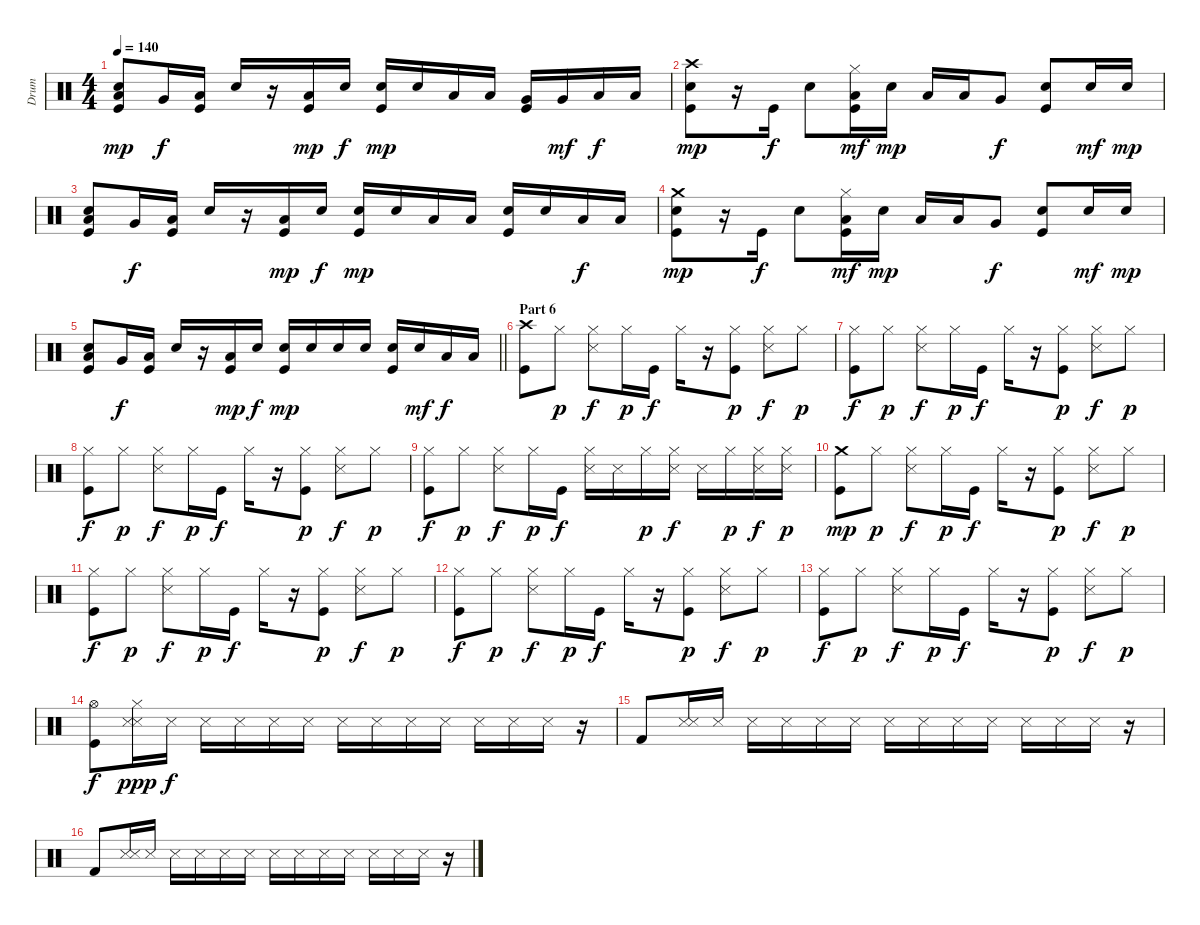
\track ("Drum" "Drum") {instrument percussion}
\staff {score}
\articulation defaults
\ts (4 4)
\tempo 140
\clef neutral
\ks c
("Low Tom (hit)" "Electric Snare (hit)" "Kick (hit)").8{dy mp} "Very Low Tom (hit)".16{dy f} ("Low Floor Tom (hit)" "Kick (hit)").16 "Electric Snare (hit)".16 r.16 ("Low Tom (hit)" "Kick (hit)").16{dy mp} "Electric Snare (hit)".16{dy f} ("Electric Snare (hit)" "Kick (hit)").16{dy mp} "Electric Snare (hit)".16 "Low Tom (hit)".16 "Low Tom (hit)".16 ("Very Low Tom (hit)" "Kick (hit)").16 "Very Low Tom (hit)".16{dy mf} "Low Floor Tom (hit)".16{dy f} "Low Floor Tom (hit)".16 |
("Crash high (hit)" "Electric Snare (hit)" "Kick (hit)").8{dy mp} r.16 "Kick (hit)".16{dy f} "Electric Snare (hit)".8 ("Low Tom (hit)" "Hi-Hat (closed)" "Kick (hit)").16{dy mf} "Electric Snare (hit)".16{dy mp} "Low Tom (hit)".16 "Low Floor Tom (hit)".16 "Very Low Tom (hit)".8{dy f} ("Electric Snare (hit)" "Kick (hit)").8 "Electric Snare (hit)".16{dy mf} "Electric Snare (hit)".16{dy mp} |
("Low Tom (hit)" "Electric Snare (hit)" "Kick (hit)").8 "Very Low Tom (hit)".16{dy f} ("Low Floor Tom (hit)" "Kick (hit)").16 "Electric Snare (hit)".16 r.16 ("Low Tom (hit)" "Kick (hit)").16{dy mp} "Electric Snare (hit)".16{dy f} ("Electric Snare (hit)" "Kick (hit)").16{dy mp} "Electric Snare (hit)".16 "Low Tom (hit)".16 "Low Tom (hit)".16 ("Electric Snare (hit)" "Kick (hit)").16 "Electric Snare (hit)".16 "Low Floor Tom (hit)".16{dy f} "Low Floor Tom (hit)".16 |
("Crash medium (hit)" "Electric Snare (hit)" "Kick (hit)").8{dy mp} r.16 "Kick (hit)".16{dy f} "Electric Snare (hit)".8 ("Low Tom (hit)" "Hi-Hat (closed)" "Kick (hit)").16{dy mf} "Electric Snare (hit)".16{dy mp} "Low Tom (hit)".16 "Low Floor Tom (hit)".16 "Very Low Tom (hit)".8{dy f} ("Electric Snare (hit)" "Kick (hit)").8 "Electric Snare (hit)".16{dy mf} "Electric Snare (hit)".16{dy mp} |
\barLineRight lightlight
("Low Tom (hit)" "Electric Snare (hit)" "Kick (hit)").8 "Very Low Tom (hit)".16{dy f} ("Low Floor Tom (hit)" "Kick (hit)").16 "Electric Snare (hit)".16 r.16 ("Low Tom (hit)" "Kick (hit)").16{dy mp} "Electric Snare (hit)".16{dy f} ("Electric Snare (hit)" "Kick (hit)").16{dy mp} "Electric Snare (hit)".16 "Snare (hit) 2".16 "Snare (hit) 2".16 ("Electric Snare (hit)" "Kick (hit)").16 "Electric Snare (hit)".16{dy mf} "Low Floor Tom (hit)".16{dy f} "Low Floor Tom (hit)".16 |
\section ("" "Part 6")
("Crash high (hit)" "Kick (hit)").8 "Hi-Hat (closed)".8{dy p} ("Hi-Hat (closed)" "Snare (side stick) 3").8{dy f} "Hi-Hat (closed)".16{dy p} "Kick (hit)".16{dy f} "Hi-Hat (closed)".16 r.16 ("Hi-Hat (closed)" "Kick (hit)").8{dy p} ("Hi-Hat (closed)" "Snare (side stick) 3").8{dy f} "Hi-Hat (closed)".8{dy p} |
("Hi-Hat (closed)" "Kick (hit)").8{dy f} "Hi-Hat (closed)".8{dy p} ("Hi-Hat (closed)" "Snare (side stick) 3").8{dy f} "Hi-Hat (closed)".16{dy p} "Kick (hit)".16{dy f} "Hi-Hat (closed)".16 r.16 ("Hi-Hat (closed)" "Kick (hit)").8{dy p} ("Hi-Hat (closed)" "Snare (side stick) 3").8{dy f} "Hi-Hat (closed)".8{dy p} |
("Hi-Hat (closed)" "Kick (hit)").8{dy f} "Hi-Hat (closed)".8{dy p} ("Hi-Hat (closed)" "Snare (side stick) 3").8{dy f} "Hi-Hat (closed)".16{dy p} "Kick (hit)".16{dy f} "Hi-Hat (closed)".16 r.16 ("Hi-Hat (closed)" "Kick (hit)").8{dy p} ("Hi-Hat (closed)" "Snare (side stick) 3").8{dy f} "Hi-Hat (closed)".8{dy p} |
("Hi-Hat (closed)" "Kick (hit)").8{dy f} "Hi-Hat (closed)".8{dy p} ("Hi-Hat (closed)" "Snare (side stick) 3").8{dy f} "Hi-Hat (closed)".16{dy p} "Kick (hit)".16{dy f} ("Hi-Hat (closed)" "Metronome (hit)").16 "Snare (side stick) 3".16 "Hi-Hat (closed)".16{dy p} ("Hi-Hat (closed)" "Metronome (hit)").16{dy f} "Snare (side stick) 3".16 "Hi-Hat (closed)".16{dy p} ("Hi-Hat (closed)" "Metronome (hit)").16{dy f} ("Hi-Hat (closed)" "Snare (side stick) 3").16{dy p} |
("Crash medium (hit)" "Kick (hit)").8{dy mp} "Hi-Hat (closed)".8{dy p} ("Hi-Hat (closed)" "Snare (side stick) 3").8{dy f} "Hi-Hat (closed)".16{dy p} "Kick (hit)".16{dy f} "Hi-Hat (closed)".16 r.16 ("Hi-Hat (closed)" "Kick (hit)").8{dy p} ("Hi-Hat (closed)" "Snare (side stick) 3").8{dy f} "Hi-Hat (closed)".8{dy p} |
("Hi-Hat (closed)" "Kick (hit)").8{dy f} "Hi-Hat (closed)".8{dy p} ("Hi-Hat (closed)" "Snare (side stick) 3").8{dy f} "Hi-Hat (closed)".16{dy p} "Kick (hit)".16{dy f} "Hi-Hat (closed)".16 r.16 ("Hi-Hat (closed)" "Kick (hit)").8{dy p} ("Hi-Hat (closed)" "Snare (side stick) 3").8{dy f} "Hi-Hat (closed)".8{dy p} |
("Hi-Hat (closed)" "Kick (hit)").8{dy f} "Hi-Hat (closed)".8{dy p} ("Hi-Hat (closed)" "Snare (side stick) 3").8{dy f} "Hi-Hat (closed)".16{dy p} "Kick (hit)".16{dy f} "Hi-Hat (closed)".16 r.16 ("Hi-Hat (closed)" "Kick (hit)").8{dy p} ("Hi-Hat (closed)" "Snare (side stick) 3").8{dy f} "Hi-Hat (closed)".8{dy p} |
("Hi-Hat (closed)" "Kick (hit)").8{dy f} "Hi-Hat (closed)".8{dy p} ("Hi-Hat (closed)" "Snare (side stick) 3").8{dy f} "Hi-Hat (closed)".16{dy p} "Kick (hit)".16{dy f} "Hi-Hat (closed)".16 r.16 ("Hi-Hat (closed)" "Kick (hit)").8{dy p} ("Hi-Hat (closed)" "Snare (side stick) 3").8{dy f} "Hi-Hat (closed)".8{dy p} |
("Hi-Hat (open)" "Kick (hit)").8{dy f} ("Hi-Hat (closed)" "Metronome (hit)" "Snare (side stick) 3").16{dy ppp} "Metronome (hit)".16{dy f} "Metronome (hit)".16 "Snare (side stick) 3".16 "Metronome (hit)".16 "Metronome (hit)".16 "Snare (side stick) 3".16 "Metronome (hit)".16 "Metronome (hit)".16 "Snare (side stick) 3".16 "Metronome (hit)".16 "Metronome (hit)".16 "Snare (side stick) 3".16 r.16 |
"Kick (hit) 2".8 ("Metronome (hit)" "Snare (side stick) 3").16 "Metronome (hit)".16 "Metronome (hit)".16 "Snare (side stick) 3".16 "Metronome (hit)".16 "Metronome (hit)".16 "Snare (side stick) 3".16 "Metronome (hit)".16 "Metronome (hit)".16 "Snare (side stick) 3".16 "Metronome (hit)".16 "Metronome (hit)".16 "Snare (side stick) 3".16 r.16 |
"Kick (hit) 2".8 ("Metronome (hit)" "Snare (side stick) 3").16 "Metronome (hit)".16 "Metronome (hit)".16 "Snare (side stick) 3".16 "Metronome (hit)".16 "Metronome (hit)".16 "Snare (side stick) 3".16 "Metronome (hit)".16 "Metronome (hit)".16 "Snare (side stick) 3".16 "Metronome (hit)".16 "Metronome (hit)".16 "Snare (side stick) 3".16 r.16
